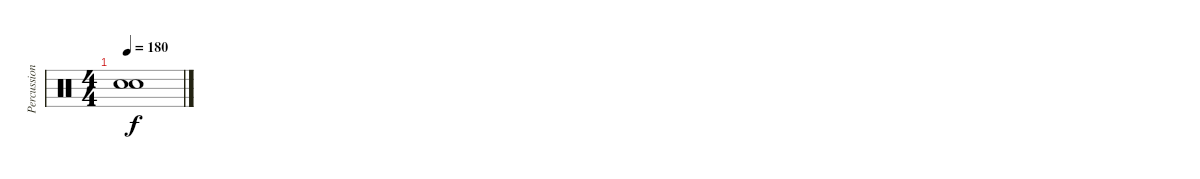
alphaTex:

\track ("Percussion 1" "Percussion") {instrument percussion}
\staff {score}
\articulation defaults
\ts (4 4)
\tempo 180
\clef neutral
\ks c
("Snare (hit)"{t} "Snare (hit)"{t}).1{dy f}
